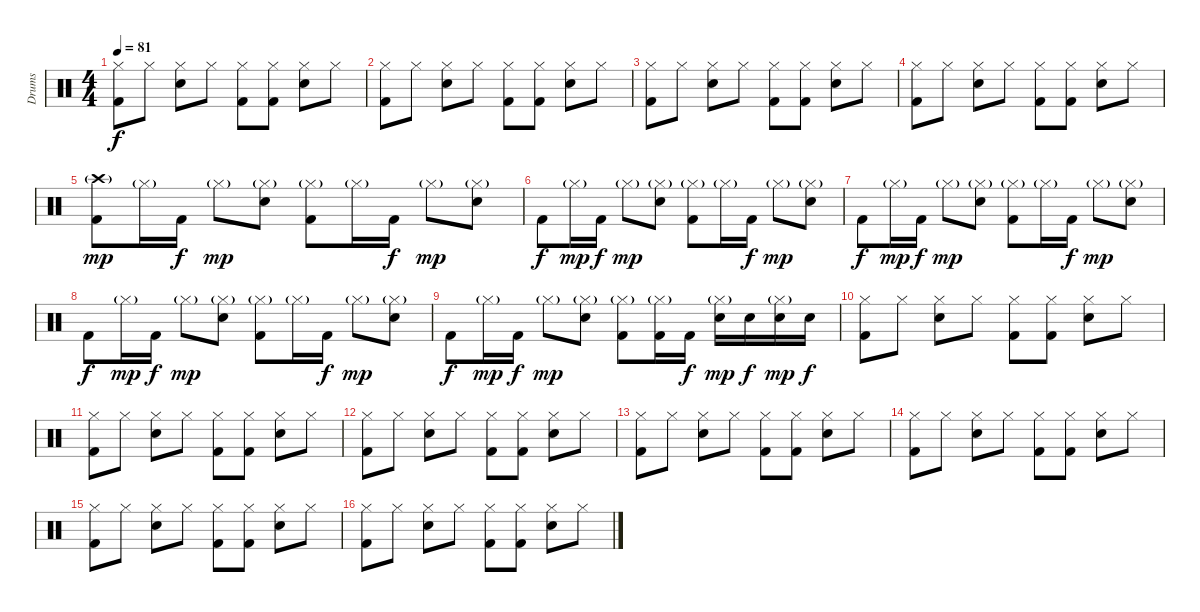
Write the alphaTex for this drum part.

\track ("Drums" "Drums") {instrument percussion}
\staff {score}
\articulation defaults
\ts (4 4)
\tempo 81
\clef neutral
\ks c
("Hi-Hat (closed)" "Kick (hit) 2").8{dy f} "Hi-Hat (closed)".8 ("Hi-Hat (closed)" "Snare (hit) 2").8 "Hi-Hat (closed)".8 ("Hi-Hat (closed)" "Kick (hit) 2").8 ("Hi-Hat (closed)" "Kick (hit) 2").8 ("Hi-Hat (closed)" "Snare (hit) 2").8 "Hi-Hat (closed)".8 |
("Hi-Hat (closed)" "Kick (hit) 2").8 "Hi-Hat (closed)".8 ("Hi-Hat (closed)" "Snare (hit) 2").8 "Hi-Hat (closed)".8 ("Hi-Hat (closed)" "Kick (hit) 2").8 ("Hi-Hat (closed)" "Kick (hit) 2").8 ("Hi-Hat (closed)" "Snare (hit) 2").8 "Hi-Hat (closed)".8 |
("Hi-Hat (closed)" "Kick (hit) 2").8 "Hi-Hat (closed)".8 ("Hi-Hat (closed)" "Snare (hit) 2").8 "Hi-Hat (closed)".8 ("Hi-Hat (closed)" "Kick (hit) 2").8 ("Hi-Hat (closed)" "Kick (hit) 2").8 ("Hi-Hat (closed)" "Snare (hit) 2").8 "Hi-Hat (closed)".8 |
("Hi-Hat (closed)" "Kick (hit) 2").8 "Hi-Hat (closed)".8 ("Hi-Hat (closed)" "Snare (hit) 2").8 "Hi-Hat (closed)".8 ("Hi-Hat (closed)" "Kick (hit) 2").8 ("Hi-Hat (closed)" "Kick (hit) 2").8 ("Hi-Hat (closed)" "Snare (hit) 2").8 "Hi-Hat (closed)".8 |
("Crash high (hit)"{g} "Kick (hit) 2").8{dy mp} "Hi-Hat (closed)"{g}.16 "Kick (hit) 2".16{dy f} "Hi-Hat (closed)"{g}.8{dy mp} ("Hi-Hat (closed)"{g} "Snare (hit) 2").8 ("Hi-Hat (closed)"{g} "Kick (hit) 2").8 "Hi-Hat (closed)"{g}.16 "Kick (hit) 2".16{dy f} "Hi-Hat (closed)"{g}.8{dy mp} ("Hi-Hat (closed)"{g} "Snare (hit) 2").8 |
"Kick (hit) 2".8{dy f} "Hi-Hat (closed)"{g}.16{dy mp} "Kick (hit) 2".16{dy f} "Hi-Hat (closed)"{g}.8{dy mp} ("Hi-Hat (closed)"{g} "Snare (hit) 2").8 ("Hi-Hat (closed)"{g} "Kick (hit) 2").8 "Hi-Hat (closed)"{g}.16 "Kick (hit) 2".16{dy f} "Hi-Hat (closed)"{g}.8{dy mp} ("Hi-Hat (closed)"{g} "Snare (hit) 2").8 |
"Kick (hit) 2".8{dy f} "Hi-Hat (closed)"{g}.16{dy mp} "Kick (hit) 2".16{dy f} "Hi-Hat (closed)"{g}.8{dy mp} ("Hi-Hat (closed)"{g} "Snare (hit) 2").8 ("Hi-Hat (closed)"{g} "Kick (hit) 2").8 "Hi-Hat (closed)"{g}.16 "Kick (hit) 2".16{dy f} "Hi-Hat (closed)"{g}.8{dy mp} ("Hi-Hat (closed)"{g} "Snare (hit) 2").8 |
"Kick (hit) 2".8{dy f} "Hi-Hat (closed)"{g}.16{dy mp} "Kick (hit) 2".16{dy f} "Hi-Hat (closed)"{g}.8{dy mp} ("Hi-Hat (closed)"{g} "Snare (hit) 2").8 ("Hi-Hat (closed)"{g} "Kick (hit) 2").8 "Hi-Hat (closed)"{g}.16 "Kick (hit) 2".16{dy f} "Hi-Hat (closed)"{g}.8{dy mp} ("Hi-Hat (closed)"{g} "Snare (hit) 2").8 |
"Kick (hit) 2".8{dy f} "Hi-Hat (closed)"{g}.16{dy mp} "Kick (hit) 2".16{dy f} "Hi-Hat (closed)"{g}.8{dy mp} ("Hi-Hat (closed)"{g} "Snare (hit) 2").8 ("Hi-Hat (closed)"{g} "Kick (hit) 2").8 ("Hi-Hat (closed)"{g} "Kick (hit) 2").16 "Kick (hit) 2".16{dy f} ("Hi-Hat (closed)"{g} "Snare (hit) 2").16{dy mp} "Snare (hit) 2".16{dy f} ("Hi-Hat (closed)"{g} "Snare (hit) 2").16{dy mp} "Snare (hit) 2".16{dy f} |
("Hi-Hat (closed)" "Kick (hit) 2").8 "Hi-Hat (closed)".8 ("Hi-Hat (closed)" "Snare (hit) 2").8 "Hi-Hat (closed)".8 ("Hi-Hat (closed)" "Kick (hit) 2").8 ("Hi-Hat (closed)" "Kick (hit) 2").8 ("Hi-Hat (closed)" "Snare (hit) 2").8 "Hi-Hat (closed)".8 |
("Hi-Hat (closed)" "Kick (hit) 2").8 "Hi-Hat (closed)".8 ("Hi-Hat (closed)" "Snare (hit) 2").8 "Hi-Hat (closed)".8 ("Hi-Hat (closed)" "Kick (hit) 2").8 ("Hi-Hat (closed)" "Kick (hit) 2").8 ("Hi-Hat (closed)" "Snare (hit) 2").8 "Hi-Hat (closed)".8 |
("Hi-Hat (closed)" "Kick (hit) 2").8 "Hi-Hat (closed)".8 ("Hi-Hat (closed)" "Snare (hit) 2").8 "Hi-Hat (closed)".8 ("Hi-Hat (closed)" "Kick (hit) 2").8 ("Hi-Hat (closed)" "Kick (hit) 2").8 ("Hi-Hat (closed)" "Snare (hit) 2").8 "Hi-Hat (closed)".8 |
("Hi-Hat (closed)" "Kick (hit) 2").8 "Hi-Hat (closed)".8 ("Hi-Hat (closed)" "Snare (hit) 2").8 "Hi-Hat (closed)".8 ("Hi-Hat (closed)" "Kick (hit) 2").8 ("Hi-Hat (closed)" "Kick (hit) 2").8 ("Hi-Hat (closed)" "Snare (hit) 2").8 "Hi-Hat (closed)".8 |
("Hi-Hat (closed)" "Kick (hit) 2").8 "Hi-Hat (closed)".8 ("Hi-Hat (closed)" "Snare (hit) 2").8 "Hi-Hat (closed)".8 ("Hi-Hat (closed)" "Kick (hit) 2").8 ("Hi-Hat (closed)" "Kick (hit) 2").8 ("Hi-Hat (closed)" "Snare (hit) 2").8 "Hi-Hat (closed)".8 |
("Hi-Hat (closed)" "Kick (hit) 2").8 "Hi-Hat (closed)".8 ("Hi-Hat (closed)" "Snare (hit) 2").8 "Hi-Hat (closed)".8 ("Hi-Hat (closed)" "Kick (hit) 2").8 ("Hi-Hat (closed)" "Kick (hit) 2").8 ("Hi-Hat (closed)" "Snare (hit) 2").8 "Hi-Hat (closed)".8 |
("Hi-Hat (closed)" "Kick (hit) 2").8 "Hi-Hat (closed)".8 ("Hi-Hat (closed)" "Snare (hit) 2").8 "Hi-Hat (closed)".8 ("Hi-Hat (closed)" "Kick (hit) 2").8 ("Hi-Hat (closed)" "Kick (hit) 2").8 ("Hi-Hat (closed)" "Snare (hit) 2").8 "Hi-Hat (closed)".8
